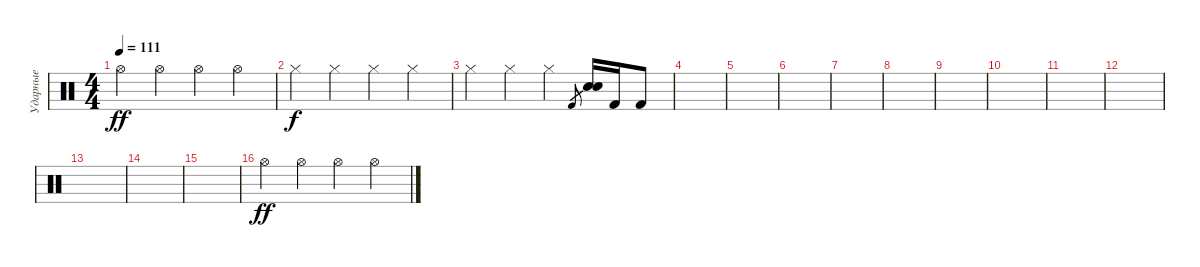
\track ("Ударные" "Ударные") {instrument percussion}
\staff {score}
\articulation defaults
\ts (4 4)
\tempo 111
\clef neutral
\ks c "Hi-Hat (open)".4{dy ff} "Hi-Hat (open)".4 "Hi-Hat (open)".4 "Hi-Hat (open)".4
|
"Hi-Hat (closed)".4{dy f} "Hi-Hat (closed)".4 "Hi-Hat (closed)".4 "Hi-Hat (closed)".4 |
"Hi-Hat (closed)".4 "Hi-Hat (closed)".4 "Hi-Hat (closed)".4 "Kick (hit) 2".8{gr} ("Snare (hit) 2" "Snare (hit) 2").16 "Kick (hit) 2".16 "Kick (hit) 2".8 |
|
|
|
|
|
|
|
|
|
|
|
|
"Hi-Hat (open)".4{dy ff} "Hi-Hat (open)".4 "Hi-Hat (open)".4 "Hi-Hat (open)".4
